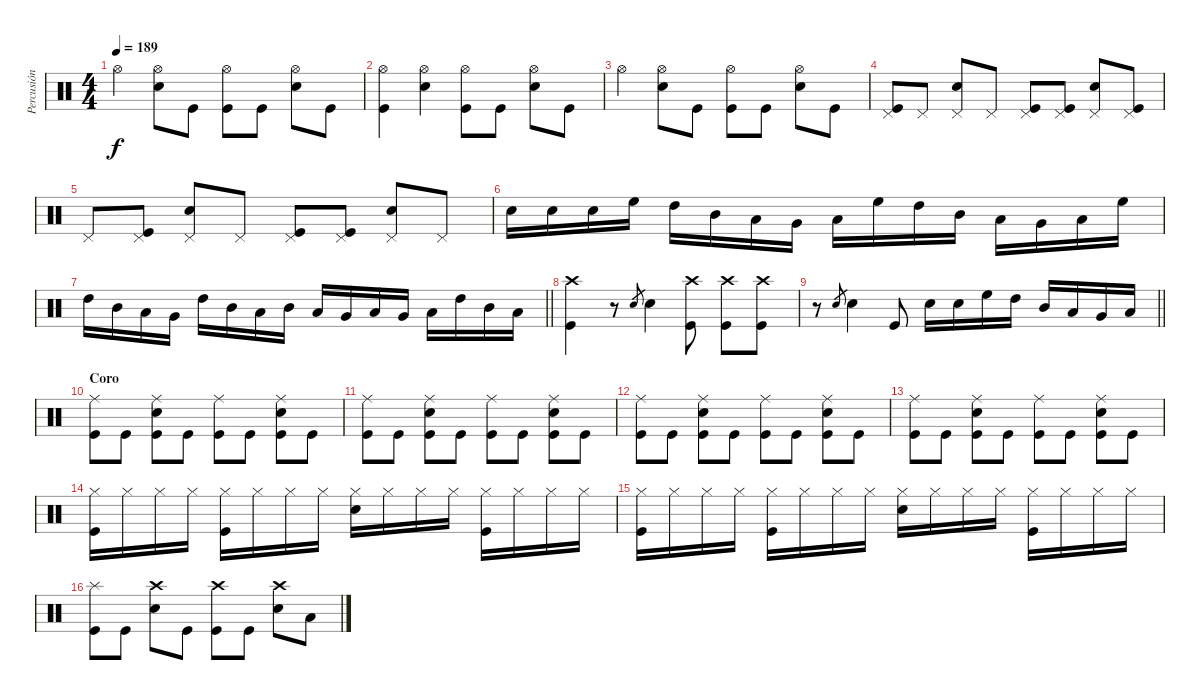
\track ("Percusión" "Percusión") {instrument percussion}
\staff {score}
\articulation defaults
\ts (4 4)
\tempo 189
\clef neutral
\ks c "Hi-Hat (open)".4{dy f}
("Hi-Hat (open)" "Electric Snare (hit)").8 "Kick (hit)".8 ("Hi-Hat (open)" "Kick (hit)").8 "Kick (hit)".8 ("Hi-Hat (open)" "Electric Snare (hit)").8 "Kick (hit)".8 |
("Hi-Hat (open)" "Kick (hit)").4 ("Hi-Hat (open)" "Electric Snare (hit)").4 ("Hi-Hat (open)" "Kick (hit)").8 "Kick (hit)".8 ("Hi-Hat (open)" "Electric Snare (hit)").8 "Kick (hit)".8 |
"Hi-Hat (open)".4 ("Hi-Hat (open)" "Electric Snare (hit)").8 "Kick (hit)".8 ("Hi-Hat (open)" "Kick (hit)").8 "Kick (hit)".8 ("Hi-Hat (open)" "Electric Snare (hit)").8 "Kick (hit)".8 |
("Pedal Hi-Hat (hit)" "Kick (hit)").8 "Pedal Hi-Hat (hit)".8 ("Pedal Hi-Hat (hit)" "Electric Snare (hit)").8 "Pedal Hi-Hat (hit)".8 ("Pedal Hi-Hat (hit)" "Kick (hit)").8 ("Pedal Hi-Hat (hit)" "Kick (hit)").8 ("Pedal Hi-Hat (hit)" "Electric Snare (hit)").8 ("Pedal Hi-Hat (hit)" "Kick (hit)").8 |
"Pedal Hi-Hat (hit)".8 ("Pedal Hi-Hat (hit)" "Kick (hit)").8 ("Pedal Hi-Hat (hit)" "Electric Snare (hit)").8 "Pedal Hi-Hat (hit)".8 ("Pedal Hi-Hat (hit)" "Kick (hit)").8 ("Pedal Hi-Hat (hit)" "Kick (hit)").8 ("Pedal Hi-Hat (hit)" "Electric Snare (hit)").8 "Pedal Hi-Hat (hit)".8 |
"Electric Snare (hit)".16 "Electric Snare (hit)".16 "Electric Snare (hit)".16 "High Floor Tom (hit)".16 "High Tom (hit)".16 "Mid Tom (hit)".16 "Low Tom (hit)".16 "Very Low Tom (hit)".16 "Low Floor Tom (hit)".16 "High Floor Tom (hit)".16 "High Tom (hit)".16 "Mid Tom (hit)".16 "Low Tom (hit)".16 "Very Low Tom (hit)".16 "Low Floor Tom (hit)".16 "High Floor Tom (hit)".16 |
\barLineRight lightlight "High Tom (hit)".16 "Mid Tom (hit)".16 "Low Tom (hit)".16 "Very Low Tom (hit)".16 "High Tom (hit)".16 "Mid Tom (hit)".16 "Low Tom (hit)".16 "Mid Tom (hit)".16 "Low Tom (hit)".16 "Very Low Tom (hit)".16 "Low Tom (hit)".16 "Very Low Tom (hit)".16 "Low Floor Tom (hit)".16 "High Tom (hit)".16 "Mid Tom (hit)".16 "Low Tom (hit)".16
|
("Crash high (hit)" "Kick (hit)").4 r.8 "Electric Snare (hit)".8{gr} "Electric Snare (hit)".4 ("Crash high (hit)" "Kick (hit)").8 ("Crash high (hit)" "Kick (hit)").8 ("Crash high (hit)" "Kick (hit)").8 |
\barLineRight lightlight
r.8 "Electric Snare (hit)".8{gr} "Electric Snare (hit)".4 "Kick (hit)".8 "Electric Snare (hit)".16 "Electric Snare (hit)".16 "High Floor Tom (hit)".16 "High Tom (hit)".16 "Mid Tom (hit)".16 "Low Tom (hit)".16 "Very Low Tom (hit)".16 "Low Floor Tom (hit)".16 |
\section ("" "Coro")
("Ride (middle)" "Kick (hit)").8 "Kick (hit)".8 ("Ride (middle)" "Electric Snare (hit)" "Kick (hit)").8 "Kick (hit)".8 ("Ride (middle)" "Kick (hit)").8 "Kick (hit)".8 ("Ride (middle)" "Electric Snare (hit)" "Kick (hit)").8 "Kick (hit)".8 |
("Ride (middle)" "Kick (hit)").8 "Kick (hit)".8 ("Ride (middle)" "Electric Snare (hit)" "Kick (hit)").8 "Kick (hit)".8 ("Ride (middle)" "Kick (hit)").8 "Kick (hit)".8 ("Ride (middle)" "Electric Snare (hit)" "Kick (hit)").8 "Kick (hit)".8 |
("Ride (middle)" "Kick (hit)").8 "Kick (hit)".8 ("Ride (middle)" "Electric Snare (hit)" "Kick (hit)").8 "Kick (hit)".8 ("Ride (middle)" "Kick (hit)").8 "Kick (hit)".8 ("Ride (middle)" "Electric Snare (hit)" "Kick (hit)").8 "Kick (hit)".8 |
("Ride (middle)" "Kick (hit)").8 "Kick (hit)".8 ("Ride (middle)" "Electric Snare (hit)" "Kick (hit)").8 "Kick (hit)".8 ("Ride (middle)" "Kick (hit)").8 "Kick (hit)".8 ("Ride (middle)" "Electric Snare (hit)" "Kick (hit)").8 "Kick (hit)".8 |
("Hi-Hat (closed)" "Kick (hit)").16 "Hi-Hat (closed)".16 "Hi-Hat (closed)".16 "Hi-Hat (closed)".16 ("Hi-Hat (closed)" "Kick (hit)").16 "Hi-Hat (closed)".16 "Hi-Hat (closed)".16 "Hi-Hat (closed)".16 ("Hi-Hat (closed)" "Electric Snare (hit)").16 "Hi-Hat (closed)".16 "Hi-Hat (closed)".16 "Hi-Hat (closed)".16 ("Hi-Hat (closed)" "Kick (hit)").16 "Hi-Hat (closed)".16 "Hi-Hat (closed)".16 "Hi-Hat (closed)".16 |
("Hi-Hat (closed)" "Kick (hit)").16 "Hi-Hat (closed)".16 "Hi-Hat (closed)".16 "Hi-Hat (closed)".16 ("Hi-Hat (closed)" "Kick (hit)").16 "Hi-Hat (closed)".16 "Hi-Hat (closed)".16 "Hi-Hat (closed)".16 ("Hi-Hat (closed)" "Electric Snare (hit)").16 "Hi-Hat (closed)".16 "Hi-Hat (closed)".16 "Hi-Hat (closed)".16 ("Hi-Hat (closed)" "Kick (hit)").16 "Hi-Hat (closed)".16 "Hi-Hat (closed)".16 "Hi-Hat (closed)".16 |
("Splash (hit)" "Kick (hit)").8 "Kick (hit)".8 ("Crash high (hit)" "Electric Snare (hit)").8 "Kick (hit)".8 ("Crash high (hit)" "Kick (hit)").8 "Kick (hit)".8 ("Crash high (hit)" "Electric Snare (hit)").8 "Low Floor Tom (hit)".8
